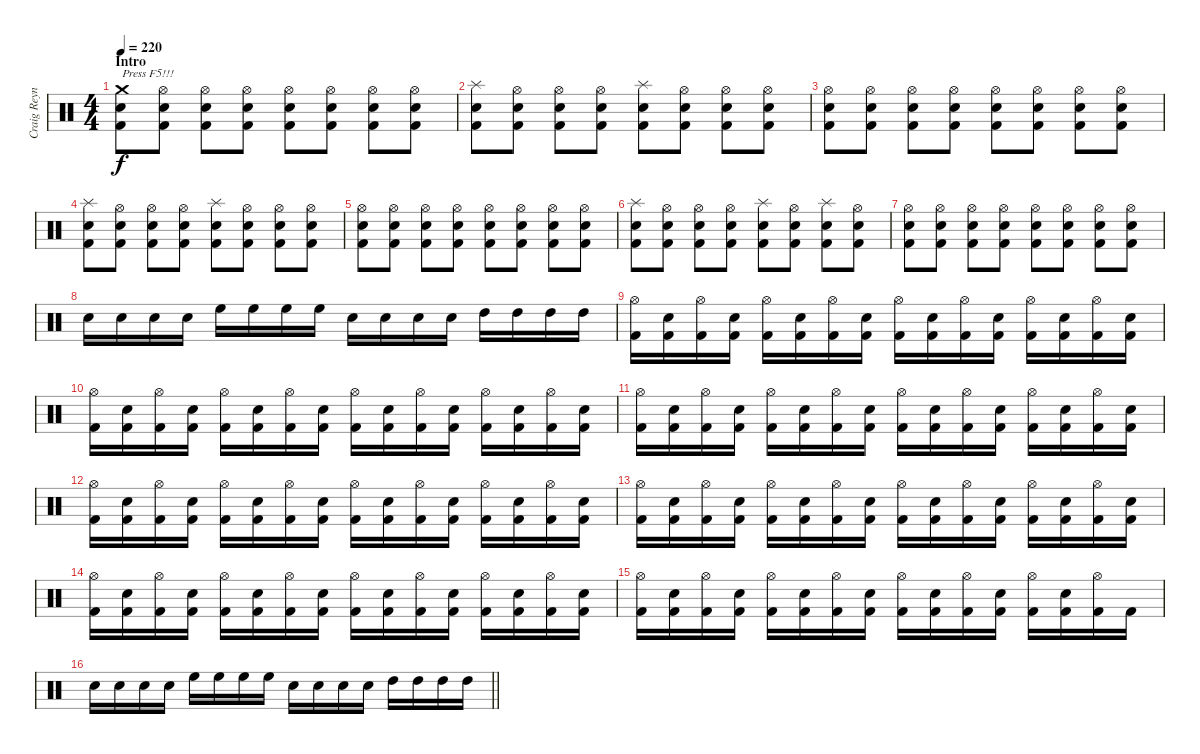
\track ("Craig Reynolds" "Craig Reyn") {instrument percussion}
\staff {score}
\articulation defaults
\ts (4 4)
\section ("" "Intro")
\tempo 220
\clef neutral
\ks c
("Crash medium (hit)" "Electric Snare (hit)" "Kick (hit) 2").8{txt "Press F5!!!" dy f} ("Hi-Hat (open)" "Electric Snare (hit)" "Kick (hit) 2").8 ("Hi-Hat (open)" "Electric Snare (hit)" "Kick (hit) 2").8 ("Hi-Hat (open)" "Electric Snare (hit)" "Kick (hit) 2").8 ("Hi-Hat (open)" "Electric Snare (hit)" "Kick (hit) 2").8 ("Hi-Hat (open)" "Electric Snare (hit)" "Kick (hit) 2").8 ("Hi-Hat (open)" "Electric Snare (hit)" "Kick (hit) 2").8 ("Hi-Hat (open)" "Electric Snare (hit)" "Kick (hit) 2").8 |
("Splash (hit)" "Electric Snare (hit)" "Kick (hit) 2").8 ("Hi-Hat (open)" "Electric Snare (hit)" "Kick (hit) 2").8 ("Hi-Hat (open)" "Electric Snare (hit)" "Kick (hit) 2").8 ("Hi-Hat (open)" "Electric Snare (hit)" "Kick (hit) 2").8 ("Splash (hit)" "Electric Snare (hit)" "Kick (hit) 2").8 ("Hi-Hat (open)" "Electric Snare (hit)" "Kick (hit) 2").8 ("Hi-Hat (open)" "Electric Snare (hit)" "Kick (hit) 2").8 ("Hi-Hat (open)" "Electric Snare (hit)" "Kick (hit) 2").8 |
("Hi-Hat (open)" "Electric Snare (hit)" "Kick (hit) 2").8 ("Hi-Hat (open)" "Electric Snare (hit)" "Kick (hit) 2").8 ("Hi-Hat (open)" "Electric Snare (hit)" "Kick (hit) 2").8 ("Hi-Hat (open)" "Electric Snare (hit)" "Kick (hit) 2").8 ("Hi-Hat (open)" "Electric Snare (hit)" "Kick (hit) 2").8 ("Hi-Hat (open)" "Electric Snare (hit)" "Kick (hit) 2").8 ("Hi-Hat (open)" "Electric Snare (hit)" "Kick (hit) 2").8 ("Hi-Hat (open)" "Electric Snare (hit)" "Kick (hit) 2").8 |
("Splash (hit)" "Electric Snare (hit)" "Kick (hit) 2").8 ("Hi-Hat (open)" "Electric Snare (hit)" "Kick (hit) 2").8 ("Hi-Hat (open)" "Electric Snare (hit)" "Kick (hit) 2").8 ("Hi-Hat (open)" "Electric Snare (hit)" "Kick (hit) 2").8 ("Splash (hit)" "Electric Snare (hit)" "Kick (hit) 2").8 ("Hi-Hat (open)" "Electric Snare (hit)" "Kick (hit) 2").8 ("Hi-Hat (open)" "Electric Snare (hit)" "Kick (hit) 2").8 ("Hi-Hat (open)" "Electric Snare (hit)" "Kick (hit) 2").8 |
("Hi-Hat (open)" "Electric Snare (hit)" "Kick (hit) 2").8 ("Hi-Hat (open)" "Electric Snare (hit)" "Kick (hit) 2").8 ("Hi-Hat (open)" "Electric Snare (hit)" "Kick (hit) 2").8 ("Hi-Hat (open)" "Electric Snare (hit)" "Kick (hit) 2").8 ("Hi-Hat (open)" "Electric Snare (hit)" "Kick (hit) 2").8 ("Hi-Hat (open)" "Electric Snare (hit)" "Kick (hit) 2").8 ("Hi-Hat (open)" "Electric Snare (hit)" "Kick (hit) 2").8 ("Hi-Hat (open)" "Electric Snare (hit)" "Kick (hit) 2").8 |
("Splash (hit)" "Electric Snare (hit)" "Kick (hit) 2").8 ("Hi-Hat (open)" "Electric Snare (hit)" "Kick (hit) 2").8 ("Hi-Hat (open)" "Electric Snare (hit)" "Kick (hit) 2").8 ("Hi-Hat (open)" "Electric Snare (hit)" "Kick (hit) 2").8 ("Splash (hit)" "Electric Snare (hit)" "Kick (hit) 2").8 ("Hi-Hat (open)" "Electric Snare (hit)" "Kick (hit) 2").8 ("Splash (hit)" "Electric Snare (hit)" "Kick (hit) 2").8 ("Hi-Hat (open)" "Electric Snare (hit)" "Kick (hit) 2").8 |
("Hi-Hat (open)" "Electric Snare (hit)" "Kick (hit) 2").8 ("Hi-Hat (open)" "Electric Snare (hit)" "Kick (hit) 2").8 ("Hi-Hat (open)" "Electric Snare (hit)" "Kick (hit) 2").8 ("Hi-Hat (open)" "Electric Snare (hit)" "Kick (hit) 2").8 ("Hi-Hat (open)" "Electric Snare (hit)" "Kick (hit) 2").8 ("Hi-Hat (open)" "Electric Snare (hit)" "Kick (hit) 2").8 ("Hi-Hat (open)" "Electric Snare (hit)" "Kick (hit) 2").8 ("Hi-Hat (open)" "Electric Snare (hit)" "Kick (hit) 2").8 |
"Electric Snare (hit)".16 "Electric Snare (hit)".16 "Electric Snare (hit)".16 "Electric Snare (hit)".16 "High Floor Tom (hit)".16 "High Floor Tom (hit)".16 "High Floor Tom (hit)".16 "High Floor Tom (hit)".16 "Electric Snare (hit)".16 "Electric Snare (hit)".16 "Electric Snare (hit)".16 "Electric Snare (hit)".16 "High Tom (hit)".16 "High Tom (hit)".16 "High Tom (hit)".16 "High Tom (hit)".16 |
("Hi-Hat (open)" "Kick (hit) 2").16 ("Electric Snare (hit)" "Kick (hit) 2").16 ("Hi-Hat (open)" "Kick (hit) 2").16 ("Electric Snare (hit)" "Kick (hit) 2").16 ("Hi-Hat (open)" "Kick (hit) 2").16 ("Electric Snare (hit)" "Kick (hit) 2").16 ("Hi-Hat (open)" "Kick (hit) 2").16 ("Electric Snare (hit)" "Kick (hit) 2").16 ("Hi-Hat (open)" "Kick (hit) 2").16 ("Electric Snare (hit)" "Kick (hit) 2").16 ("Hi-Hat (open)" "Kick (hit) 2").16 ("Electric Snare (hit)" "Kick (hit) 2").16 ("Hi-Hat (open)" "Kick (hit) 2").16 ("Electric Snare (hit)" "Kick (hit) 2").16 ("Hi-Hat (open)" "Kick (hit) 2").16 ("Electric Snare (hit)" "Kick (hit) 2").16 |
("Hi-Hat (open)" "Kick (hit) 2").16 ("Electric Snare (hit)" "Kick (hit) 2").16 ("Hi-Hat (open)" "Kick (hit) 2").16 ("Electric Snare (hit)" "Kick (hit) 2").16 ("Hi-Hat (open)" "Kick (hit) 2").16 ("Electric Snare (hit)" "Kick (hit) 2").16 ("Hi-Hat (open)" "Kick (hit) 2").16 ("Electric Snare (hit)" "Kick (hit) 2").16 ("Hi-Hat (open)" "Kick (hit) 2").16 ("Electric Snare (hit)" "Kick (hit) 2").16 ("Hi-Hat (open)" "Kick (hit) 2").16 ("Electric Snare (hit)" "Kick (hit) 2").16 ("Hi-Hat (open)" "Kick (hit) 2").16 ("Electric Snare (hit)" "Kick (hit) 2").16 ("Hi-Hat (open)" "Kick (hit) 2").16 ("Electric Snare (hit)" "Kick (hit) 2").16 |
("Hi-Hat (open)" "Kick (hit) 2").16 ("Electric Snare (hit)" "Kick (hit) 2").16 ("Hi-Hat (open)" "Kick (hit) 2").16 ("Electric Snare (hit)" "Kick (hit) 2").16 ("Hi-Hat (open)" "Kick (hit) 2").16 ("Electric Snare (hit)" "Kick (hit) 2").16 ("Hi-Hat (open)" "Kick (hit) 2").16 ("Electric Snare (hit)" "Kick (hit) 2").16 ("Hi-Hat (open)" "Kick (hit) 2").16 ("Electric Snare (hit)" "Kick (hit) 2").16 ("Hi-Hat (open)" "Kick (hit) 2").16 ("Electric Snare (hit)" "Kick (hit) 2").16 ("Hi-Hat (open)" "Kick (hit) 2").16 ("Electric Snare (hit)" "Kick (hit) 2").16 ("Hi-Hat (open)" "Kick (hit) 2").16 ("Electric Snare (hit)" "Kick (hit) 2").16 |
("Hi-Hat (open)" "Kick (hit) 2").16 ("Electric Snare (hit)" "Kick (hit) 2").16 ("Hi-Hat (open)" "Kick (hit) 2").16 ("Electric Snare (hit)" "Kick (hit) 2").16 ("Hi-Hat (open)" "Kick (hit) 2").16 ("Electric Snare (hit)" "Kick (hit) 2").16 ("Hi-Hat (open)" "Kick (hit) 2").16 ("Electric Snare (hit)" "Kick (hit) 2").16 ("Hi-Hat (open)" "Kick (hit) 2").16 ("Electric Snare (hit)" "Kick (hit) 2").16 ("Hi-Hat (open)" "Kick (hit) 2").16 ("Electric Snare (hit)" "Kick (hit) 2").16 ("Hi-Hat (open)" "Kick (hit) 2").16 ("Electric Snare (hit)" "Kick (hit) 2").16 ("Hi-Hat (open)" "Kick (hit) 2").16 ("Electric Snare (hit)" "Kick (hit) 2").16 |
("Hi-Hat (open)" "Kick (hit) 2").16 ("Electric Snare (hit)" "Kick (hit) 2").16 ("Hi-Hat (open)" "Kick (hit) 2").16 ("Electric Snare (hit)" "Kick (hit) 2").16 ("Hi-Hat (open)" "Kick (hit) 2").16 ("Electric Snare (hit)" "Kick (hit) 2").16 ("Hi-Hat (open)" "Kick (hit) 2").16 ("Electric Snare (hit)" "Kick (hit) 2").16 ("Hi-Hat (open)" "Kick (hit) 2").16 ("Electric Snare (hit)" "Kick (hit) 2").16 ("Hi-Hat (open)" "Kick (hit) 2").16 ("Electric Snare (hit)" "Kick (hit) 2").16 ("Hi-Hat (open)" "Kick (hit) 2").16 ("Electric Snare (hit)" "Kick (hit) 2").16 ("Hi-Hat (open)" "Kick (hit) 2").16 ("Electric Snare (hit)" "Kick (hit) 2").16 |
("Hi-Hat (open)" "Kick (hit) 2").16 ("Electric Snare (hit)" "Kick (hit) 2").16 ("Hi-Hat (open)" "Kick (hit) 2").16 ("Electric Snare (hit)" "Kick (hit) 2").16 ("Hi-Hat (open)" "Kick (hit) 2").16 ("Electric Snare (hit)" "Kick (hit) 2").16 ("Hi-Hat (open)" "Kick (hit) 2").16 ("Electric Snare (hit)" "Kick (hit) 2").16 ("Hi-Hat (open)" "Kick (hit) 2").16 ("Electric Snare (hit)" "Kick (hit) 2").16 ("Hi-Hat (open)" "Kick (hit) 2").16 ("Electric Snare (hit)" "Kick (hit) 2").16 ("Hi-Hat (open)" "Kick (hit) 2").16 ("Electric Snare (hit)" "Kick (hit) 2").16 ("Hi-Hat (open)" "Kick (hit) 2").16 ("Electric Snare (hit)" "Kick (hit) 2").16 |
("Hi-Hat (open)" "Kick (hit) 2").16 ("Electric Snare (hit)" "Kick (hit) 2").16 ("Hi-Hat (open)" "Kick (hit) 2").16 ("Electric Snare (hit)" "Kick (hit) 2").16 ("Hi-Hat (open)" "Kick (hit) 2").16 ("Electric Snare (hit)" "Kick (hit) 2").16 ("Hi-Hat (open)" "Kick (hit) 2").16 ("Electric Snare (hit)" "Kick (hit) 2").16 ("Hi-Hat (open)" "Kick (hit) 2").16 ("Electric Snare (hit)" "Kick (hit) 2").16 ("Hi-Hat (open)" "Kick (hit) 2").16 ("Electric Snare (hit)" "Kick (hit) 2").16 ("Hi-Hat (open)" "Kick (hit) 2").16 ("Electric Snare (hit)" "Kick (hit) 2").16 ("Hi-Hat (open)" "Kick (hit) 2").16 "Kick (hit) 2".16 |
\barLineRight lightlight "Electric Snare (hit)".16 "Electric Snare (hit)".16 "Electric Snare (hit)".16 "Electric Snare (hit)".16 "High Floor Tom (hit)".16 "High Floor Tom (hit)".16 "High Floor Tom (hit)".16 "High Floor Tom (hit)".16 "Electric Snare (hit)".16 "Electric Snare (hit)".16 "Electric Snare (hit)".16 "Electric Snare (hit)".16 "High Tom (hit)".16 "High Tom (hit)".16 "High Tom (hit)".16 "High Tom (hit)".16
